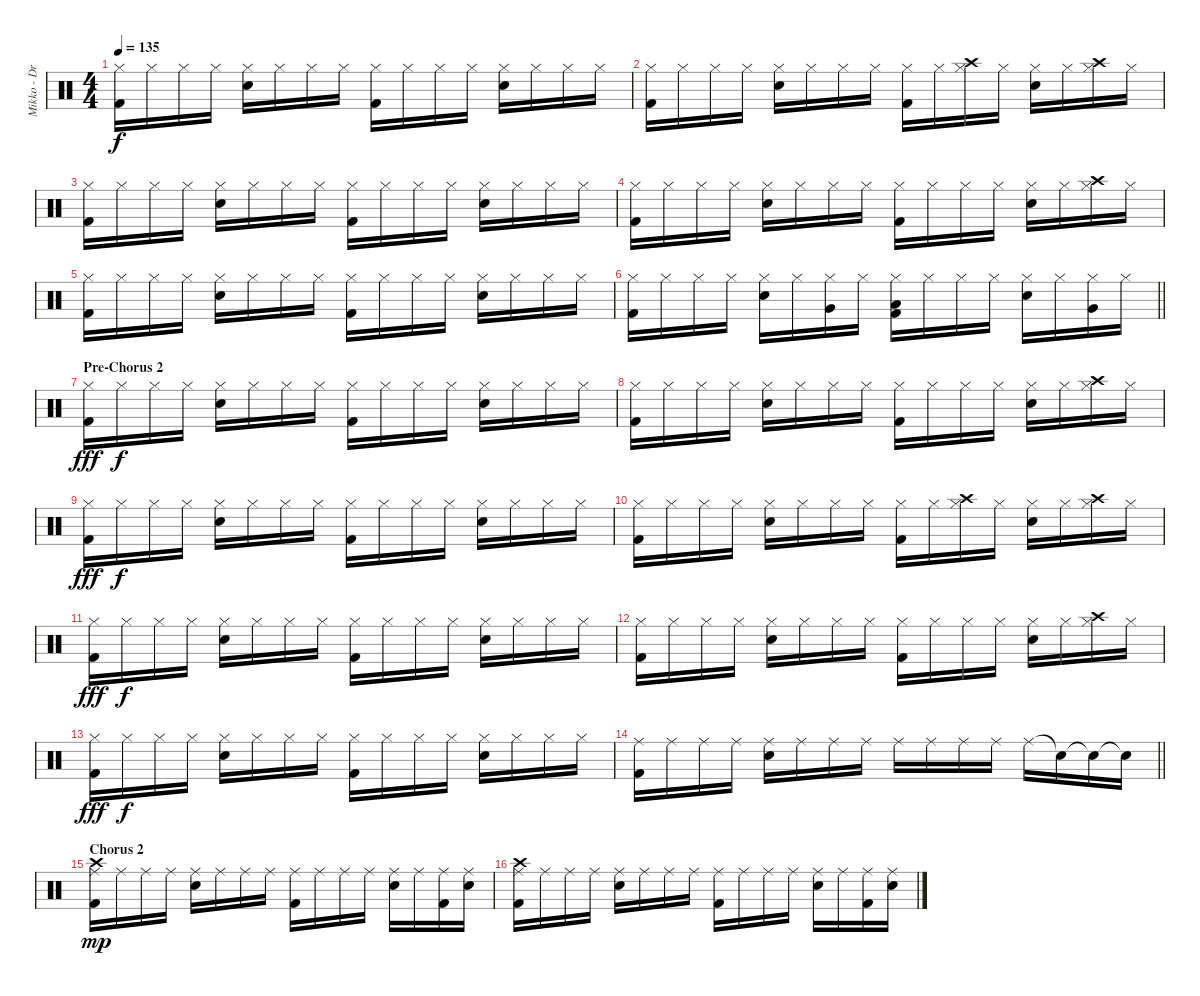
\track ("Mikko - Drums" "Mikko - Dr") {instrument percussion}
\staff {score}
\articulation defaults
\ts (4 4)
\tempo 135
\clef neutral
\ks c
("Hi-Hat (closed)" "Kick (hit) 2").16{dy f} "Hi-Hat (closed)".16 "Hi-Hat (closed)".16 "Hi-Hat (closed)".16 ("Hi-Hat (closed)" "Snare (hit) 2").16 "Hi-Hat (closed)".16 "Hi-Hat (closed)".16 "Hi-Hat (closed)".16 ("Hi-Hat (closed)" "Kick (hit) 2").16 "Hi-Hat (closed)".16 "Hi-Hat (closed)".16 "Hi-Hat (closed)".16 ("Hi-Hat (closed)" "Snare (hit) 2").16 "Hi-Hat (closed)".16 "Hi-Hat (closed)".16 "Hi-Hat (closed)".16 |
("Hi-Hat (closed)" "Kick (hit) 2").16 "Hi-Hat (closed)".16 "Hi-Hat (closed)".16 "Hi-Hat (closed)".16 ("Hi-Hat (closed)" "Snare (hit) 2").16 "Hi-Hat (closed)".16 "Hi-Hat (closed)".16 "Hi-Hat (closed)".16 ("Hi-Hat (closed)" "Kick (hit) 2").16 "Hi-Hat (closed)".16 ("Hi-Hat (closed)" "Crash high (hit)").16 "Hi-Hat (closed)".16 ("Hi-Hat (closed)" "Snare (hit) 2").16 "Hi-Hat (closed)".16 ("Hi-Hat (closed)" "Crash high (hit)").16 "Hi-Hat (closed)".16 |
("Hi-Hat (closed)" "Kick (hit) 2").16 "Hi-Hat (closed)".16 "Hi-Hat (closed)".16 "Hi-Hat (closed)".16 ("Hi-Hat (closed)" "Snare (hit) 2").16 "Hi-Hat (closed)".16 "Hi-Hat (closed)".16 "Hi-Hat (closed)".16 ("Hi-Hat (closed)" "Kick (hit) 2").16 "Hi-Hat (closed)".16 "Hi-Hat (closed)".16 "Hi-Hat (closed)".16 ("Hi-Hat (closed)" "Snare (hit) 2").16 "Hi-Hat (closed)".16 "Hi-Hat (closed)".16 "Hi-Hat (closed)".16 |
("Hi-Hat (closed)" "Kick (hit) 2").16 "Hi-Hat (closed)".16 "Hi-Hat (closed)".16 "Hi-Hat (closed)".16 ("Hi-Hat (closed)" "Snare (hit) 2").16 "Hi-Hat (closed)".16 "Hi-Hat (closed)".16 "Hi-Hat (closed)".16 ("Hi-Hat (closed)" "Kick (hit) 2").16 "Hi-Hat (closed)".16 "Hi-Hat (closed)".16 "Hi-Hat (closed)".16 ("Hi-Hat (closed)" "Snare (hit) 2").16 "Hi-Hat (closed)".16 ("Hi-Hat (closed)" "Crash high (hit)").16 "Hi-Hat (closed)".16 |
("Hi-Hat (closed)" "Kick (hit) 2").16 "Hi-Hat (closed)".16 "Hi-Hat (closed)".16 "Hi-Hat (closed)".16 ("Hi-Hat (closed)" "Snare (hit) 2").16 "Hi-Hat (closed)".16 "Hi-Hat (closed)".16 "Hi-Hat (closed)".16 ("Hi-Hat (closed)" "Kick (hit) 2").16 "Hi-Hat (closed)".16 "Hi-Hat (closed)".16 "Hi-Hat (closed)".16 ("Hi-Hat (closed)" "Snare (hit) 2").16 "Hi-Hat (closed)".16 "Hi-Hat (closed)".16 "Hi-Hat (closed)".16 |
\barLineRight lightlight
("Hi-Hat (closed)" "Kick (hit) 2").16 "Hi-Hat (closed)".16 "Hi-Hat (closed)".16 "Hi-Hat (closed)".16 ("Hi-Hat (closed)" "Snare (hit) 2").16 "Hi-Hat (closed)".16 ("Hi-Hat (closed)" "Very Low Tom (hit)").16 "Hi-Hat (closed)".16 ("Hi-Hat (closed)" "Low Floor Tom (hit)" "Kick (hit) 2").16 "Hi-Hat (closed)".16 "Hi-Hat (closed)".16 "Hi-Hat (closed)".16 ("Hi-Hat (closed)" "Snare (hit) 2").16 "Hi-Hat (closed)".16 ("Hi-Hat (closed)" "Very Low Tom (hit)").16 "Hi-Hat (closed)".16 |
\section ("" "Pre-Chorus 2")
("Hi-Hat (closed)" "Kick (hit) 2").16{dy fff} "Hi-Hat (closed)".16{dy f} "Hi-Hat (closed)".16 "Hi-Hat (closed)".16 ("Hi-Hat (closed)" "Snare (hit) 2").16 "Hi-Hat (closed)".16 "Hi-Hat (closed)".16 "Hi-Hat (closed)".16 ("Hi-Hat (closed)" "Kick (hit) 2").16 "Hi-Hat (closed)".16 "Hi-Hat (closed)".16 "Hi-Hat (closed)".16 ("Hi-Hat (closed)" "Snare (hit) 2").16 "Hi-Hat (closed)".16 "Hi-Hat (closed)".16 "Hi-Hat (closed)".16 |
("Hi-Hat (closed)" "Kick (hit) 2").16 "Hi-Hat (closed)".16 "Hi-Hat (closed)".16 "Hi-Hat (closed)".16 ("Hi-Hat (closed)" "Snare (hit) 2").16 "Hi-Hat (closed)".16 "Hi-Hat (closed)".16 "Hi-Hat (closed)".16 ("Hi-Hat (closed)" "Kick (hit) 2").16 "Hi-Hat (closed)".16 "Hi-Hat (closed)".16 "Hi-Hat (closed)".16 ("Hi-Hat (closed)" "Snare (hit) 2").16 "Hi-Hat (closed)".16 ("Hi-Hat (closed)" "Crash high (hit)").16 "Hi-Hat (closed)".16 |
("Hi-Hat (closed)" "Kick (hit) 2").16{dy fff} "Hi-Hat (closed)".16{dy f} "Hi-Hat (closed)".16 "Hi-Hat (closed)".16 ("Hi-Hat (closed)" "Snare (hit) 2").16 "Hi-Hat (closed)".16 "Hi-Hat (closed)".16 "Hi-Hat (closed)".16 ("Hi-Hat (closed)" "Kick (hit) 2").16 "Hi-Hat (closed)".16 "Hi-Hat (closed)".16 "Hi-Hat (closed)".16 ("Hi-Hat (closed)" "Snare (hit) 2").16 "Hi-Hat (closed)".16 "Hi-Hat (closed)".16 "Hi-Hat (closed)".16 |
("Hi-Hat (closed)" "Kick (hit) 2").16 "Hi-Hat (closed)".16 "Hi-Hat (closed)".16 "Hi-Hat (closed)".16 ("Hi-Hat (closed)" "Snare (hit) 2").16 "Hi-Hat (closed)".16 "Hi-Hat (closed)".16 "Hi-Hat (closed)".16 ("Hi-Hat (closed)" "Kick (hit) 2").16 "Hi-Hat (closed)".16 ("Hi-Hat (closed)" "Crash high (hit)").16 "Hi-Hat (closed)".16 ("Hi-Hat (closed)" "Snare (hit) 2").16 "Hi-Hat (closed)".16 ("Hi-Hat (closed)" "Crash high (hit)").16 "Hi-Hat (closed)".16 |
("Hi-Hat (closed)" "Kick (hit) 2").16{dy fff} "Hi-Hat (closed)".16{dy f} "Hi-Hat (closed)".16 "Hi-Hat (closed)".16 ("Hi-Hat (closed)" "Snare (hit) 2").16 "Hi-Hat (closed)".16 "Hi-Hat (closed)".16 "Hi-Hat (closed)".16 ("Hi-Hat (closed)" "Kick (hit) 2").16 "Hi-Hat (closed)".16 "Hi-Hat (closed)".16 "Hi-Hat (closed)".16 ("Hi-Hat (closed)" "Snare (hit) 2").16 "Hi-Hat (closed)".16 "Hi-Hat (closed)".16 "Hi-Hat (closed)".16 |
("Hi-Hat (closed)" "Kick (hit) 2").16 "Hi-Hat (closed)".16 "Hi-Hat (closed)".16 "Hi-Hat (closed)".16 ("Hi-Hat (closed)" "Snare (hit) 2").16 "Hi-Hat (closed)".16 "Hi-Hat (closed)".16 "Hi-Hat (closed)".16 ("Hi-Hat (closed)" "Kick (hit) 2").16 "Hi-Hat (closed)".16 "Hi-Hat (closed)".16 "Hi-Hat (closed)".16 ("Hi-Hat (closed)" "Snare (hit) 2").16 "Hi-Hat (closed)".16 ("Hi-Hat (closed)" "Crash high (hit)").16 "Hi-Hat (closed)".16 |
("Hi-Hat (closed)" "Kick (hit) 2").16{dy fff} "Hi-Hat (closed)".16{dy f} "Hi-Hat (closed)".16 "Hi-Hat (closed)".16 ("Hi-Hat (closed)" "Snare (hit) 2").16 "Hi-Hat (closed)".16 "Hi-Hat (closed)".16 "Hi-Hat (closed)".16 ("Hi-Hat (closed)" "Kick (hit) 2").16 "Hi-Hat (closed)".16 "Hi-Hat (closed)".16 "Hi-Hat (closed)".16 ("Hi-Hat (closed)" "Snare (hit) 2").16 "Hi-Hat (closed)".16 "Hi-Hat (closed)".16 "Hi-Hat (closed)".16 |
\barLineRight lightlight
("Ride (middle)" "Kick (hit) 2").16 "Ride (middle)".16 "Ride (middle)".16 "Ride (middle)".16 ("Ride (middle)" "Snare (hit) 2").16 "Ride (middle)".16 "Ride (middle)".16 "Ride (middle)".16 "Ride (middle)".16 "Ride (middle)".16 "Ride (middle)".16 "Ride (middle)".16 "Ride (middle)".16 "Snare (hit)"{t}.16 "Snare (hit)"{t}.16 "Snare (hit)"{t}.16 |
\section ("" "Chorus 2")
("Ride (middle)" "Crash high (hit)" "Kick (hit) 2").16{dy mp} "Ride (middle)".16 "Ride (middle)".16 "Ride (middle)".16 ("Ride (middle)" "Snare (hit) 2").16 "Ride (middle)".16 "Ride (middle)".16 "Ride (middle)".16 ("Ride (middle)" "Kick (hit) 2").16 "Ride (middle)".16 "Ride (middle)".16 "Ride (middle)".16 ("Ride (middle)" "Snare (hit) 2").16 "Ride (middle)".16 ("Ride (middle)" "Kick (hit) 2").16 ("Ride (middle)" "Snare (hit) 2").16 |
("Ride (middle)" "Crash high (hit)" "Kick (hit) 2").16 "Ride (middle)".16 "Ride (middle)".16 "Ride (middle)".16 ("Ride (middle)" "Snare (hit) 2").16 "Ride (middle)".16 "Ride (middle)".16 "Ride (middle)".16 ("Ride (middle)" "Kick (hit) 2").16 "Ride (middle)".16 "Ride (middle)".16 "Ride (middle)".16 ("Ride (middle)" "Snare (hit) 2").16 "Ride (middle)".16 ("Ride (middle)" "Kick (hit) 2").16 ("Ride (middle)" "Snare (hit) 2").16
